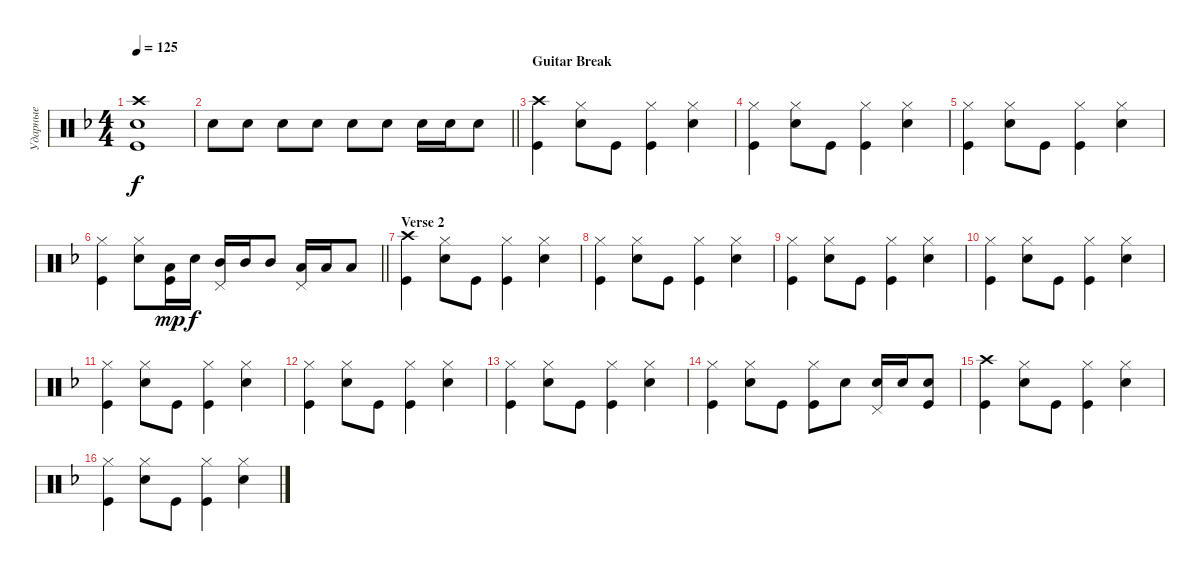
\track ("Ударные" "Ударные") {instrument percussion}
\staff {score}
\articulation defaults
\ts (4 4)
\tempo 125
\clef neutral
\ks dminor
("Kick (hit)" "Crash high (hit)" "Snare (hit) 2").1{dy f} |
\barLineRight lightlight "Snare (hit) 2".8 "Snare (hit) 2".8 "Snare (hit) 2".8 "Snare (hit) 2".8 "Snare (hit) 2".8 "Snare (hit) 2".8 "Snare (hit) 2".16 "Snare (hit) 2".16 "Snare (hit) 2".8
|
\section ("" "Guitar Break")
("Kick (hit)" "Crash high (hit)").4 ("Hi-Hat (closed)" "Snare (hit) 2").8 "Kick (hit)".8 ("Hi-Hat (closed)" "Kick (hit)").4 ("Hi-Hat (closed)" "Snare (hit) 2").4 |
("Hi-Hat (closed)" "Kick (hit)").4 ("Hi-Hat (closed)" "Snare (hit) 2").8 "Kick (hit)".8 ("Hi-Hat (closed)" "Kick (hit)").4 ("Hi-Hat (closed)" "Snare (hit) 2").4 |
("Hi-Hat (closed)" "Kick (hit)").4 ("Hi-Hat (closed)" "Snare (hit) 2").8 "Kick (hit)".8 ("Hi-Hat (closed)" "Kick (hit)").4 ("Hi-Hat (closed)" "Snare (hit) 2").4 |
\barLineRight lightlight
("Hi-Hat (closed)" "Kick (hit)").4 ("Hi-Hat (closed)" "Snare (hit) 2").8 ("Low Floor Tom (hit)" "Kick (hit)").16{dy mp} "Snare (hit) 2".16{dy f} ("Mid Tom (hit)" "Pedal Hi-Hat (hit)").16 "Mid Tom (hit)".16 "Mid Tom (hit)".8 ("Pedal Hi-Hat (hit)" "Low Tom (hit)").16 "Low Tom (hit)".16 "Low Tom (hit)".8 |
\section ("" "Verse 2")
("Crash high (hit)" "Kick (hit)").4 ("Hi-Hat (closed)" "Snare (hit) 2").8 "Kick (hit)".8 ("Hi-Hat (closed)" "Kick (hit)").4 ("Hi-Hat (closed)" "Snare (hit) 2").4 |
("Hi-Hat (closed)" "Kick (hit)").4 ("Hi-Hat (closed)" "Snare (hit) 2").8 "Kick (hit)".8 ("Hi-Hat (closed)" "Kick (hit)").4 ("Hi-Hat (closed)" "Snare (hit) 2").4 |
("Hi-Hat (closed)" "Kick (hit)").4 ("Hi-Hat (closed)" "Snare (hit) 2").8 "Kick (hit)".8 ("Hi-Hat (closed)" "Kick (hit)").4 ("Hi-Hat (closed)" "Snare (hit) 2").4 |
("Hi-Hat (closed)" "Kick (hit)").4 ("Hi-Hat (closed)" "Snare (hit) 2").8 "Kick (hit)".8 ("Hi-Hat (closed)" "Kick (hit)").4 ("Hi-Hat (closed)" "Snare (hit) 2").4 |
("Hi-Hat (closed)" "Kick (hit)").4 ("Hi-Hat (closed)" "Snare (hit) 2").8 "Kick (hit)".8 ("Hi-Hat (closed)" "Kick (hit)").4 ("Hi-Hat (closed)" "Snare (hit) 2").4 |
("Hi-Hat (closed)" "Kick (hit)").4 ("Hi-Hat (closed)" "Snare (hit) 2").8 "Kick (hit)".8 ("Hi-Hat (closed)" "Kick (hit)").4 ("Hi-Hat (closed)" "Snare (hit) 2").4 |
("Hi-Hat (closed)" "Kick (hit)").4 ("Hi-Hat (closed)" "Snare (hit) 2").8 "Kick (hit)".8 ("Hi-Hat (closed)" "Kick (hit)").4 ("Hi-Hat (closed)" "Snare (hit) 2").4 |
("Hi-Hat (closed)" "Kick (hit)").4 ("Hi-Hat (closed)" "Snare (hit) 2").8 "Kick (hit)".8 ("Hi-Hat (closed)" "Kick (hit)").8 "Snare (hit) 2".8 ("Snare (hit) 2" "Pedal Hi-Hat (hit)").16 "Snare (hit) 2".16 ("Snare (hit) 2" "Kick (hit)").8 |
("Crash high (hit)" "Kick (hit)").4 ("Hi-Hat (closed)" "Snare (hit) 2").8 "Kick (hit)".8 ("Hi-Hat (closed)" "Kick (hit)").4 ("Hi-Hat (closed)" "Snare (hit) 2").4 |
("Hi-Hat (closed)" "Kick (hit)").4 ("Hi-Hat (closed)" "Snare (hit) 2").8 "Kick (hit)".8 ("Hi-Hat (closed)" "Kick (hit)").4 ("Hi-Hat (closed)" "Snare (hit) 2").4
